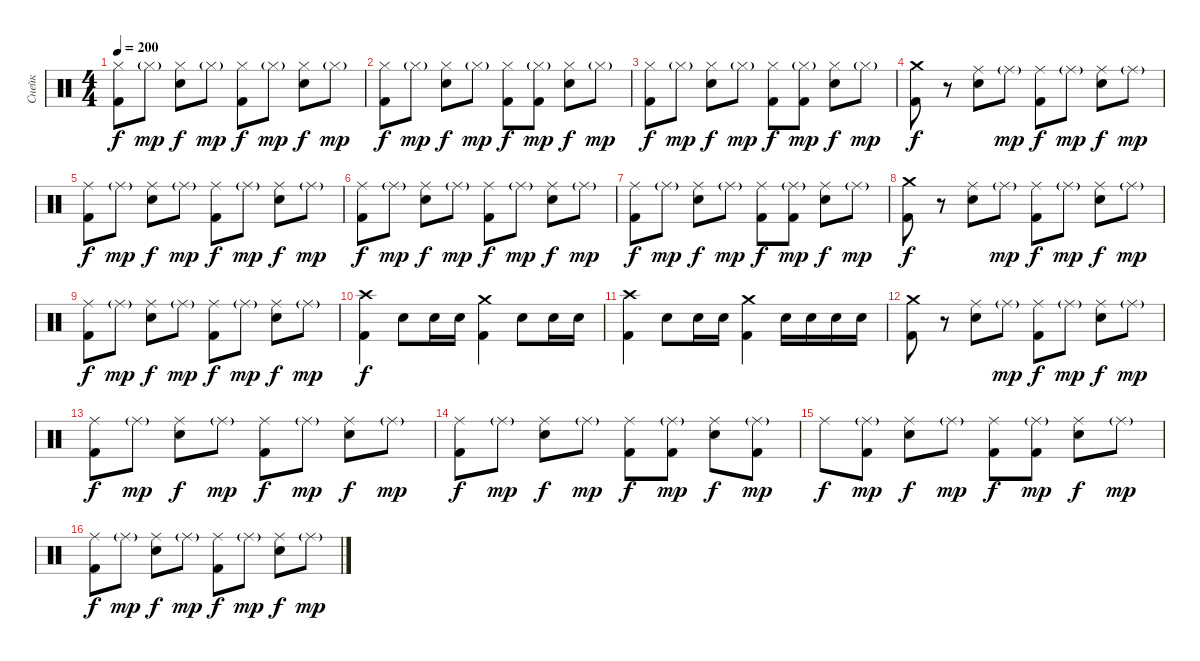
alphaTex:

\track ("Снейк" "Снейк") {instrument percussion}
\staff {score}
\articulation defaults
\ts (4 4)
\tempo 200
\clef neutral
\ks c
("Hi-Hat (closed)" "Kick (hit) 2").8{dy f} "Hi-Hat (closed)"{g}.8{dy mp} ("Hi-Hat (closed)" "Electric Snare (hit)").8{dy f} "Hi-Hat (closed)"{g}.8{dy mp} ("Hi-Hat (closed)" "Kick (hit) 2").8{dy f} "Hi-Hat (closed)"{g}.8{dy mp} ("Hi-Hat (closed)" "Electric Snare (hit)").8{dy f} "Hi-Hat (closed)"{g}.8{dy mp} |
("Hi-Hat (closed)" "Kick (hit) 2").8{dy f} "Hi-Hat (closed)"{g}.8{dy mp} ("Hi-Hat (closed)" "Electric Snare (hit)").8{dy f} "Hi-Hat (closed)"{g}.8{dy mp} ("Hi-Hat (closed)" "Kick (hit) 2").8{dy f} ("Hi-Hat (closed)"{g} "Kick (hit) 2").8{dy mp} ("Hi-Hat (closed)" "Electric Snare (hit)").8{dy f} "Hi-Hat (closed)"{g}.8{dy mp} |
("Hi-Hat (closed)" "Kick (hit) 2").8{dy f} "Hi-Hat (closed)"{g}.8{dy mp} ("Hi-Hat (closed)" "Electric Snare (hit)").8{dy f} "Hi-Hat (closed)"{g}.8{dy mp} ("Hi-Hat (closed)" "Kick (hit) 2").8{dy f} ("Hi-Hat (closed)"{g} "Kick (hit) 2").8{dy mp} ("Hi-Hat (closed)" "Electric Snare (hit)").8{dy f} "Hi-Hat (closed)"{g}.8{dy mp} |
("Crash medium (hit)" "Kick (hit) 2").8{dy f} r.8 ("Ride (middle)" "Electric Snare (hit)").8 "Ride (middle)"{g}.8{dy mp} ("Ride (middle)" "Kick (hit) 2").8{dy f} "Ride (middle)"{g}.8{dy mp} ("Ride (middle)" "Electric Snare (hit)").8{dy f} "Ride (middle)"{g}.8{dy mp} |
("Ride (middle)" "Kick (hit) 2").8{dy f} "Ride (middle)"{g}.8{dy mp} ("Ride (middle)" "Electric Snare (hit)").8{dy f} "Ride (middle)"{g}.8{dy mp} ("Ride (middle)" "Kick (hit) 2").8{dy f} "Ride (middle)"{g}.8{dy mp} ("Ride (middle)" "Electric Snare (hit)").8{dy f} "Ride (middle)"{g}.8{dy mp} |
("Ride (middle)" "Kick (hit) 2").8{dy f} "Ride (middle)"{g}.8{dy mp} ("Ride (middle)" "Electric Snare (hit)").8{dy f} "Ride (middle)"{g}.8{dy mp} ("Ride (middle)" "Kick (hit) 2").8{dy f} "Ride (middle)"{g}.8{dy mp} ("Ride (middle)" "Electric Snare (hit)").8{dy f} "Ride (middle)"{g}.8{dy mp} |
("Ride (middle)" "Kick (hit) 2").8{dy f} "Ride (middle)"{g}.8{dy mp} ("Ride (middle)" "Electric Snare (hit)").8{dy f} "Ride (middle)"{g}.8{dy mp} ("Ride (middle)" "Kick (hit) 2").8{dy f} ("Ride (middle)"{g} "Kick (hit) 2").8{dy mp} ("Ride (middle)" "Electric Snare (hit)").8{dy f} "Ride (middle)"{g}.8{dy mp} |
("Crash medium (hit)" "Kick (hit) 2").8{dy f} r.8 ("Ride (middle)" "Electric Snare (hit)").8 "Ride (middle)"{g}.8{dy mp} ("Ride (middle)" "Kick (hit) 2").8{dy f} "Ride (middle)"{g}.8{dy mp} ("Ride (middle)" "Electric Snare (hit)").8{dy f} "Ride (middle)"{g}.8{dy mp} |
("Ride (middle)" "Kick (hit) 2").8{dy f} "Ride (middle)"{g}.8{dy mp} ("Ride (middle)" "Electric Snare (hit)").8{dy f} "Ride (middle)"{g}.8{dy mp} ("Ride (middle)" "Kick (hit) 2").8{dy f} "Ride (middle)"{g}.8{dy mp} ("Ride (middle)" "Electric Snare (hit)").8{dy f} "Ride (middle)"{g}.8{dy mp} |
("Crash high (hit)" "Kick (hit) 2").4{dy f} "Electric Snare (hit)".8 "Electric Snare (hit)".16 "Electric Snare (hit)".16 ("Crash medium (hit)" "Kick (hit) 2").4 "Electric Snare (hit)".8 "Electric Snare (hit)".16 "Electric Snare (hit)".16 |
("Crash high (hit)" "Kick (hit) 2").4 "Electric Snare (hit)".8 "Electric Snare (hit)".16 "Electric Snare (hit)".16 ("Crash medium (hit)" "Kick (hit) 2").4 "Electric Snare (hit)".16 "Electric Snare (hit)".16 "Electric Snare (hit)".16 "Electric Snare (hit)".16 |
("Crash medium (hit)" "Kick (hit) 2").8 r.8 ("Ride (middle)" "Electric Snare (hit)").8 "Ride (middle)"{g}.8{dy mp} ("Ride (middle)" "Kick (hit) 2").8{dy f} "Ride (middle)"{g}.8{dy mp} ("Ride (middle)" "Electric Snare (hit)").8{dy f} "Ride (middle)"{g}.8{dy mp} |
("Ride (middle)" "Kick (hit) 2").8{dy f} "Ride (middle)"{g}.8{dy mp} ("Ride (middle)" "Electric Snare (hit)").8{dy f} "Ride (middle)"{g}.8{dy mp} ("Ride (middle)" "Kick (hit) 2").8{dy f} "Ride (middle)"{g}.8{dy mp} ("Ride (middle)" "Electric Snare (hit)").8{dy f} "Ride (middle)"{g}.8{dy mp} |
("Ride (middle)" "Kick (hit) 2").8{dy f} "Ride (middle)"{g}.8{dy mp} ("Ride (middle)" "Electric Snare (hit)").8{dy f} "Ride (middle)"{g}.8{dy mp} ("Ride (middle)" "Kick (hit) 2").8{dy f} ("Ride (middle)"{g} "Kick (hit) 2").8{dy mp} ("Ride (middle)" "Electric Snare (hit)").8{dy f} ("Ride (middle)"{g} "Kick (hit) 2").8{dy mp} |
"Ride (middle)".8{dy f} ("Ride (middle)"{g} "Kick (hit) 2").8{dy mp} ("Ride (middle)" "Electric Snare (hit)").8{dy f} "Ride (middle)"{g}.8{dy mp} ("Ride (middle)" "Kick (hit) 2").8{dy f} ("Ride (middle)"{g} "Kick (hit) 2").8{dy mp} ("Ride (middle)" "Electric Snare (hit)").8{dy f} "Ride (middle)"{g}.8{dy mp} |
("Ride (middle)" "Kick (hit) 2").8{dy f} "Ride (middle)"{g}.8{dy mp} ("Ride (middle)" "Electric Snare (hit)").8{dy f} "Ride (middle)"{g}.8{dy mp} ("Ride (middle)" "Kick (hit) 2").8{dy f} "Ride (middle)"{g}.8{dy mp} ("Ride (middle)" "Electric Snare (hit)").8{dy f} "Ride (middle)"{g}.8{dy mp}
